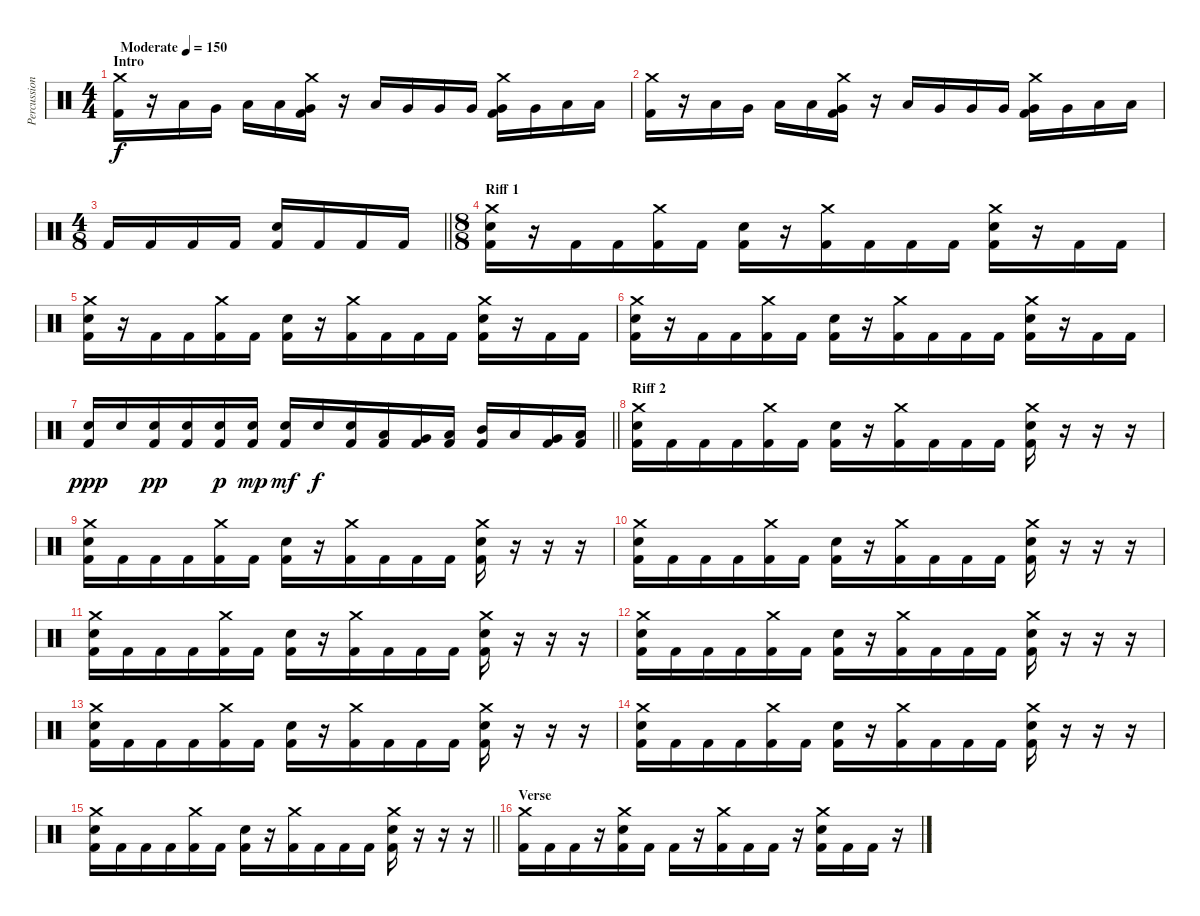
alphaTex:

\track ("Percussions" "Percussion") {instrument percussion}
\staff {score}
\articulation defaults
\ts (4 4)
\section ("" "Intro")
\tempo (150 "Moderate")
\clef neutral
\ks c
("Crash medium (hit)" "Kick (hit) 2").16{dy f} r.16 "Low Tom (hit)".16 "Very Low Tom (hit)".16 "Low Floor Tom (hit)".16 "Low Floor Tom (hit)".16 ("Crash medium (hit)" "Very Low Tom (hit)" "Kick (hit) 2").16 r.16 "Low Tom (hit)".16 "Very Low Tom (hit)".16 "Very Low Tom (hit)".16 "Very Low Tom (hit)".16 ("Crash medium (hit)" "Very Low Tom (hit)" "Kick (hit) 2").16 "Very Low Tom (hit)".16 "Low Floor Tom (hit)".16 "Low Floor Tom (hit)".16 |
("Crash medium (hit)" "Kick (hit) 2").16 r.16 "Low Tom (hit)".16 "Very Low Tom (hit)".16 "Low Floor Tom (hit)".16 "Low Floor Tom (hit)".16 ("Crash medium (hit)" "Very Low Tom (hit)" "Kick (hit) 2").16 r.16 "Low Tom (hit)".16 "Very Low Tom (hit)".16 "Very Low Tom (hit)".16 "Very Low Tom (hit)".16 ("Crash medium (hit)" "Very Low Tom (hit)" "Kick (hit) 2").16 "Very Low Tom (hit)".16 "Low Floor Tom (hit)".16 "Low Floor Tom (hit)".16 |
\ts (4 8)
\barLineRight lightlight "Kick (hit) 2".16 "Kick (hit) 2".16 "Kick (hit) 2".16 "Kick (hit) 2".16
("Electric Snare (hit)" "Kick (hit) 2").16 "Kick (hit) 2".16 "Kick (hit) 2".16 "Kick (hit) 2".16 |
\ts (8 8)
\section ("" "Riff 1")
("Crash medium (hit)" "Electric Snare (hit)" "Kick (hit) 2").16 r.16 "Kick (hit) 2".16 "Kick (hit) 2".16 ("Crash medium (hit)" "Kick (hit) 2").16 "Kick (hit) 2".16 ("Electric Snare (hit)" "Kick (hit) 2").16 r.16 ("Crash medium (hit)" "Kick (hit) 2").16 "Kick (hit) 2".16 "Kick (hit) 2".16 "Kick (hit) 2".16 ("Crash medium (hit)" "Electric Snare (hit)" "Kick (hit) 2").16 r.16 "Kick (hit) 2".16 "Kick (hit) 2".16 |
("Crash medium (hit)" "Electric Snare (hit)" "Kick (hit) 2").16 r.16 "Kick (hit) 2".16 "Kick (hit) 2".16 ("Crash medium (hit)" "Kick (hit) 2").16 "Kick (hit) 2".16 ("Electric Snare (hit)" "Kick (hit) 2").16 r.16 ("Crash medium (hit)" "Kick (hit) 2").16 "Kick (hit) 2".16 "Kick (hit) 2".16 "Kick (hit) 2".16 ("Crash medium (hit)" "Electric Snare (hit)" "Kick (hit) 2").16 r.16 "Kick (hit) 2".16 "Kick (hit) 2".16 |
("Crash medium (hit)" "Electric Snare (hit)" "Kick (hit) 2").16 r.16 "Kick (hit) 2".16 "Kick (hit) 2".16 ("Crash medium (hit)" "Kick (hit) 2").16 "Kick (hit) 2".16 ("Electric Snare (hit)" "Kick (hit) 2").16 r.16 ("Crash medium (hit)" "Kick (hit) 2").16 "Kick (hit) 2".16 "Kick (hit) 2".16 "Kick (hit) 2".16 ("Crash medium (hit)" "Electric Snare (hit)" "Kick (hit) 2").16 r.16 "Kick (hit) 2".16 "Kick (hit) 2".16 |
\barLineRight lightlight
("Electric Snare (hit)" "Kick (hit) 2").16{dy ppp} "Electric Snare (hit)".16 ("Electric Snare (hit)" "Kick (hit) 2").16{dy pp} ("Electric Snare (hit)" "Kick (hit) 2").16 ("Electric Snare (hit)" "Kick (hit) 2").16{dy p} ("Electric Snare (hit)" "Kick (hit) 2").16{dy mp} ("Electric Snare (hit)" "Kick (hit) 2").16{dy mf} "Electric Snare (hit)".16{dy f} ("Electric Snare (hit)" "Kick (hit) 2").16 ("Low Tom (hit)" "Kick (hit) 2").16 ("Very Low Tom (hit)" "Kick (hit) 2").16 ("Low Floor Tom (hit)" "Kick (hit) 2").16 ("Mid Tom (hit)" "Kick (hit) 2").16 "Low Tom (hit)".16 ("Very Low Tom (hit)" "Kick (hit) 2").16 ("Low Floor Tom (hit)" "Kick (hit) 2").16 |
\section ("" "Riff 2")
("Crash medium (hit)" "Electric Snare (hit)" "Kick (hit) 2").16 "Kick (hit) 2".16 "Kick (hit) 2".16 "Kick (hit) 2".16 ("Crash medium (hit)" "Kick (hit) 2").16 "Kick (hit) 2".16 ("Electric Snare (hit)" "Kick (hit) 2").16 r.16 ("Crash medium (hit)" "Kick (hit) 2").16 "Kick (hit) 2".16 "Kick (hit) 2".16 "Kick (hit) 2".16 ("Crash medium (hit)" "Electric Snare (hit)" "Kick (hit) 2").16 r.16 r.16 r.16 |
("Crash medium (hit)" "Electric Snare (hit)" "Kick (hit) 2").16 "Kick (hit) 2".16 "Kick (hit) 2".16 "Kick (hit) 2".16 ("Crash medium (hit)" "Kick (hit) 2").16 "Kick (hit) 2".16 ("Electric Snare (hit)" "Kick (hit) 2").16 r.16 ("Crash medium (hit)" "Kick (hit) 2").16 "Kick (hit) 2".16 "Kick (hit) 2".16 "Kick (hit) 2".16 ("Crash medium (hit)" "Electric Snare (hit)" "Kick (hit) 2").16 r.16 r.16 r.16 |
("Crash medium (hit)" "Electric Snare (hit)" "Kick (hit) 2").16 "Kick (hit) 2".16 "Kick (hit) 2".16 "Kick (hit) 2".16 ("Crash medium (hit)" "Kick (hit) 2").16 "Kick (hit) 2".16 ("Electric Snare (hit)" "Kick (hit) 2").16 r.16 ("Crash medium (hit)" "Kick (hit) 2").16 "Kick (hit) 2".16 "Kick (hit) 2".16 "Kick (hit) 2".16 ("Crash medium (hit)" "Electric Snare (hit)" "Kick (hit) 2").16 r.16 r.16 r.16 |
("Crash medium (hit)" "Electric Snare (hit)" "Kick (hit) 2").16 "Kick (hit) 2".16 "Kick (hit) 2".16 "Kick (hit) 2".16 ("Crash medium (hit)" "Kick (hit) 2").16 "Kick (hit) 2".16 ("Electric Snare (hit)" "Kick (hit) 2").16 r.16 ("Crash medium (hit)" "Kick (hit) 2").16 "Kick (hit) 2".16 "Kick (hit) 2".16 "Kick (hit) 2".16 ("Crash medium (hit)" "Electric Snare (hit)" "Kick (hit) 2").16 r.16 r.16 r.16 |
("Crash medium (hit)" "Electric Snare (hit)" "Kick (hit) 2").16 "Kick (hit) 2".16 "Kick (hit) 2".16 "Kick (hit) 2".16 ("Crash medium (hit)" "Kick (hit) 2").16 "Kick (hit) 2".16 ("Electric Snare (hit)" "Kick (hit) 2").16 r.16 ("Crash medium (hit)" "Kick (hit) 2").16 "Kick (hit) 2".16 "Kick (hit) 2".16 "Kick (hit) 2".16 ("Crash medium (hit)" "Electric Snare (hit)" "Kick (hit) 2").16 r.16 r.16 r.16 |
("Crash medium (hit)" "Electric Snare (hit)" "Kick (hit) 2").16 "Kick (hit) 2".16 "Kick (hit) 2".16 "Kick (hit) 2".16 ("Crash medium (hit)" "Kick (hit) 2").16 "Kick (hit) 2".16 ("Electric Snare (hit)" "Kick (hit) 2").16 r.16 ("Crash medium (hit)" "Kick (hit) 2").16 "Kick (hit) 2".16 "Kick (hit) 2".16 "Kick (hit) 2".16 ("Crash medium (hit)" "Electric Snare (hit)" "Kick (hit) 2").16 r.16 r.16 r.16 |
("Crash medium (hit)" "Electric Snare (hit)" "Kick (hit) 2").16 "Kick (hit) 2".16 "Kick (hit) 2".16 "Kick (hit) 2".16 ("Crash medium (hit)" "Kick (hit) 2").16 "Kick (hit) 2".16 ("Electric Snare (hit)" "Kick (hit) 2").16 r.16 ("Crash medium (hit)" "Kick (hit) 2").16 "Kick (hit) 2".16 "Kick (hit) 2".16 "Kick (hit) 2".16 ("Crash medium (hit)" "Electric Snare (hit)" "Kick (hit) 2").16 r.16 r.16 r.16 |
\barLineRight lightlight
("Crash medium (hit)" "Electric Snare (hit)" "Kick (hit) 2").16 "Kick (hit) 2".16 "Kick (hit) 2".16 "Kick (hit) 2".16 ("Crash medium (hit)" "Kick (hit) 2").16 "Kick (hit) 2".16 ("Electric Snare (hit)" "Kick (hit) 2").16 r.16 ("Crash medium (hit)" "Kick (hit) 2").16 "Kick (hit) 2".16 "Kick (hit) 2".16 "Kick (hit) 2".16 ("Crash medium (hit)" "Electric Snare (hit)" "Kick (hit) 2").16 r.16 r.16 r.16 |
\section ("" "Verse")
("Crash medium (hit)" "Kick (hit) 2").16 "Kick (hit) 2".16 "Kick (hit) 2".16 r.16 ("Crash medium (hit)" "Electric Snare (hit)" "Kick (hit) 2").16 "Kick (hit) 2".16 "Kick (hit) 2".16 r.16 ("Crash medium (hit)" "Kick (hit) 2").16 "Kick (hit) 2".16 "Kick (hit) 2".16 r.16 ("Crash medium (hit)" "Electric Snare (hit)" "Kick (hit) 2").16 "Kick (hit) 2".16 "Kick (hit) 2".16 r.16
